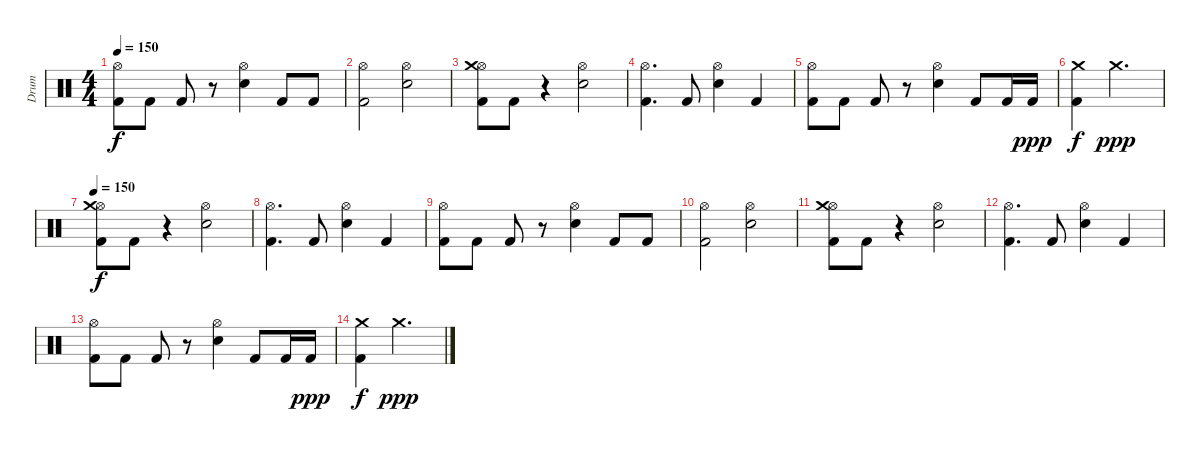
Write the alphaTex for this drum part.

\track ("Drum" "Drum") {instrument percussion}
\staff {score}
\articulation defaults
\ts (4 4)
\tempo 150
\clef neutral
\ks c
("Hi-Hat (open)" "Kick (hit) 2").8{dy f} "Kick (hit) 2".8 "Kick (hit) 2".8 r.8 ("Hi-Hat (open)" "Electric Snare (hit)").4 "Kick (hit) 2".8 "Kick (hit) 2".8 |
("Hi-Hat (open)" "Kick (hit) 2").2 ("Hi-Hat (open)" "Electric Snare (hit)").2 |
("Hi-Hat (open)" "Crash medium (hit)" "Kick (hit) 2").8 "Kick (hit) 2".8 r.4 ("Hi-Hat (open)" "Electric Snare (hit)").2 |
("Hi-Hat (open)" "Kick (hit) 2").4{d} "Kick (hit) 2".8 ("Hi-Hat (open)" "Electric Snare (hit)").4 "Kick (hit) 2".4 |
("Hi-Hat (open)" "Kick (hit) 2").8 "Kick (hit) 2".8 "Kick (hit) 2".8 r.8 ("Hi-Hat (open)" "Electric Snare (hit)").4 "Kick (hit) 2".8 "Kick (hit) 2".16 "Kick (hit) 2".16{dy ppp} |
("Crash medium (hit)" "Kick (hit) 2").4{dy f} "Crash medium (hit)".2{d dy ppp} |
\tempo 150
("Hi-Hat (open)" "Crash medium (hit)" "Kick (hit) 2").8{dy f} "Kick (hit) 2".8 r.4 ("Hi-Hat (open)" "Electric Snare (hit)").2 |
("Hi-Hat (open)" "Kick (hit) 2").4{d} "Kick (hit) 2".8 ("Hi-Hat (open)" "Electric Snare (hit)").4 "Kick (hit) 2".4 |
("Hi-Hat (open)" "Kick (hit) 2").8 "Kick (hit) 2".8 "Kick (hit) 2".8 r.8 ("Hi-Hat (open)" "Electric Snare (hit)").4 "Kick (hit) 2".8 "Kick (hit) 2".8 |
("Hi-Hat (open)" "Kick (hit) 2").2 ("Hi-Hat (open)" "Electric Snare (hit)").2 |
("Hi-Hat (open)" "Crash medium (hit)" "Kick (hit) 2").8 "Kick (hit) 2".8 r.4 ("Hi-Hat (open)" "Electric Snare (hit)").2 |
("Hi-Hat (open)" "Kick (hit) 2").4{d} "Kick (hit) 2".8 ("Hi-Hat (open)" "Electric Snare (hit)").4 "Kick (hit) 2".4 |
("Hi-Hat (open)" "Kick (hit) 2").8 "Kick (hit) 2".8 "Kick (hit) 2".8 r.8 ("Hi-Hat (open)" "Electric Snare (hit)").4 "Kick (hit) 2".8 "Kick (hit) 2".16 "Kick (hit) 2".16{dy ppp} |
("Crash medium (hit)" "Kick (hit) 2").4{dy f} "Crash medium (hit)".2{d dy ppp}
